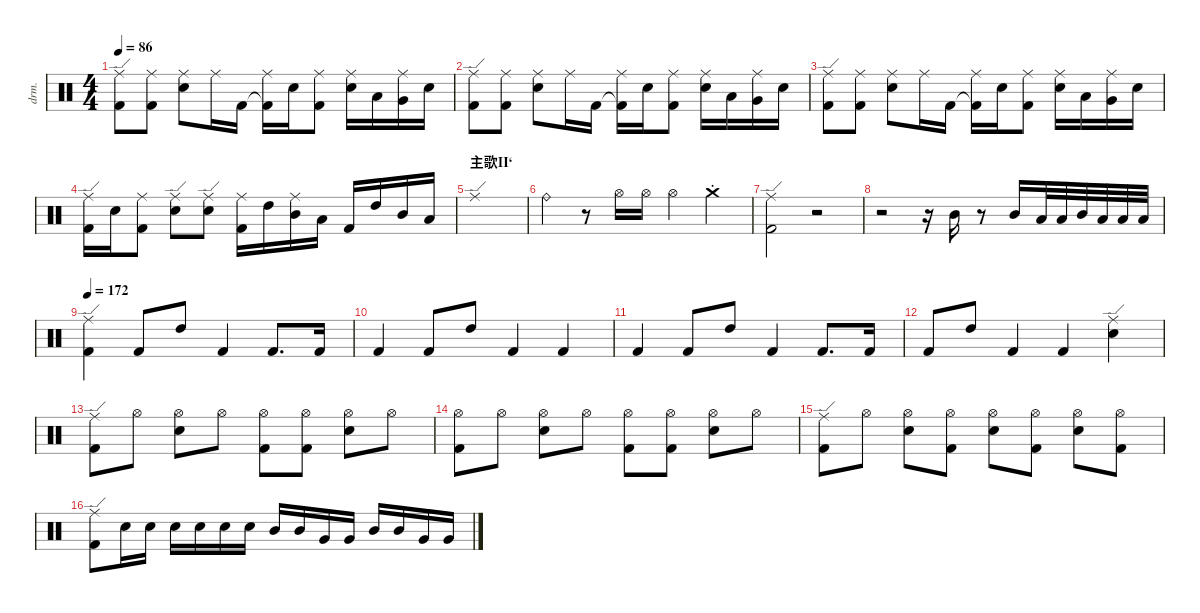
\defaultSystemsLayout 4
\hideDynamics
\bracketExtendMode nobrackets
\track ("Drums" "drm.") {solo instrument percussion}
\staff {score}
\articulation defaults
\ts (4 4)
\tempo 86
\clef neutral
\ks c
("Ride (edge)" "Kick (hit) 2").8{dy ff beam Down} ("Kick (hit) 2" "Ride (middle)").8{dy mf beam Down} ("Snare (hit) 2" "Ride (middle)").8{beam Down} "Ride (middle)".16{beam Down} "Kick (hit) 2".16{beam Down} ("Kick (hit) 2"{t} "Ride (middle)").16{beam Down} "Snare (hit) 2".16{beam Down} ("Kick (hit) 2" "Ride (middle)").8{beam Down} ("Ride (middle)" "Snare (hit) 2").16{beam Down} "Low Tom (hit)".16{beam Down} ("Ride (middle)" "Very Low Tom (hit)").16{beam Down} "Snare (hit) 2".16{beam Down} |
("Ride (edge)" "Kick (hit) 2").8{beam Down} ("Kick (hit) 2" "Ride (middle)").8{beam Down} ("Snare (hit) 2" "Ride (middle)").8{beam Down} "Ride (middle)".16{beam Down} "Kick (hit) 2".16{beam Down} ("Kick (hit) 2"{t} "Ride (middle)").16{beam Down} "Snare (hit) 2".16{beam Down} ("Kick (hit) 2" "Ride (middle)").8{beam Down} ("Ride (middle)" "Snare (hit) 2").16{beam Down} "Low Tom (hit)".16{beam Down} ("Ride (middle)" "Very Low Tom (hit)").16{beam Down} "Snare (hit) 2".16{beam Down} |
("Ride (edge)" "Kick (hit) 2").8{dy ff beam Down} ("Kick (hit) 2" "Ride (middle)").8{dy mf beam Down} ("Snare (hit) 2" "Ride (middle)").8{beam Down} "Ride (middle)".16{beam Down} "Kick (hit) 2".16{beam Down} ("Kick (hit) 2"{t} "Ride (middle)").16{beam Down} "Snare (hit) 2".16{beam Down} ("Kick (hit) 2" "Ride (middle)").8{beam Down} ("Ride (middle)" "Snare (hit) 2").16{beam Down} "Low Tom (hit)".16{beam Down} ("Ride (middle)" "Very Low Tom (hit)").16{beam Down} "Snare (hit) 2".16{beam Down} |
("Ride (edge)" "Kick (hit) 2").16{beam Down} "Snare (hit) 2".16{beam Down} ("Ride (middle)" "Kick (hit) 2").8{beam Down} ("Snare (hit) 2" "Ride (edge)").8{dy ff beam Down} ("Ride (edge)" "Snare (hit) 2").8{beam Down} ("Kick (hit) 2" "Ride (middle)").16{beam Down} "High Tom (hit)".16{beam Down} ("Mid Tom (hit)" "Ride (middle)").16{dy mf beam Down} "Low Tom (hit)".16{beam Down} "Kick (hit) 2".16{dy ff beam Up} "High Tom (hit)".16{beam Up} "Mid Tom (hit)".16{dy mf beam Up} "Low Tom (hit)".16{beam Up} |
\section ("" "主歌II‘")
"Ride (edge)".1{dy ff beam Down} |
"Ride (bell)".4{dy mp beam Down} r.8{beam Down} "Hi-Hat (open)".16{dy p beam Down} "Hi-Hat (open)".16{beam Down} "Hi-Hat (open)".4{dy mf beam Down} "Crash medium (choke)".4{dy mp beam Down} |
("Kick (hit) 2" "Ride (edge)").2{dy f beam Down} r.2{beam Down} |
r.2{beam Down} r.16{beam Down} "Mid Tom (hit)".16{dy mf beam Down} r.8{beam Down} "Mid Tom (hit)".16{beam Up} "Low Tom (hit)".32{beam Up} "Low Tom (hit)".32{beam Up} "Mid Tom (hit)".32{beam Up} "Low Tom (hit)".32{beam Up} "Low Tom (hit)".32{beam Up} "Low Tom (hit)".32{beam Up} |
\tempo 172
("Ride (edge)" "Kick (hit) 2").4{dy ff beam Down} "Kick (hit) 2".8{dy mf beam Up} "High Tom (hit)".8{beam Up} "Kick (hit) 2".4{beam Up} "Kick (hit) 2".8{d beam Up} "Kick (hit) 2".16{beam Up} |
"Kick (hit) 2".4{beam Up} "Kick (hit) 2".8{beam Up} "High Tom (hit)".8{dy fff beam Up} "Kick (hit) 2".4{dy mf beam Up} "Kick (hit) 2".4{beam Up} |
"Kick (hit) 2".4{beam Up} "Kick (hit) 2".8{beam Up} "High Tom (hit)".8{dy fff beam Up} "Kick (hit) 2".4{dy mf beam Up} "Kick (hit) 2".8{d beam Up} "Kick (hit) 2".16{beam Up} |
"Kick (hit) 2".8{beam Up} "High Tom (hit)".8{dy fff beam Up} "Kick (hit) 2".4{dy mf beam Up} "Kick (hit) 2".4{beam Up} ("Snare (hit) 2" "Ride (edge)").4{dy ff beam Down} |
("Kick (hit) 2" "Ride (edge)").8{beam Down} "Hi-Hat (open)".8{dy mf beam Down} ("Snare (hit) 2" "Hi-Hat (open)").8{beam Down} "Hi-Hat (open)".8{beam Down} ("Kick (hit) 2" "Hi-Hat (open)").8{beam Down} ("Kick (hit) 2" "Hi-Hat (open)").8{beam Down} ("Snare (hit) 2" "Hi-Hat (open)").8{beam Down} "Hi-Hat (open)".8{beam Down} |
("Kick (hit) 2" "Hi-Hat (open)").8{beam Down} "Hi-Hat (open)".8{beam Down} ("Snare (hit) 2" "Hi-Hat (open)").8{beam Down} "Hi-Hat (open)".8{beam Down} ("Kick (hit) 2" "Hi-Hat (open)").8{beam Down} ("Kick (hit) 2" "Hi-Hat (open)").8{beam Down} ("Snare (hit) 2" "Hi-Hat (open)").8{beam Down} "Hi-Hat (open)".8{beam Down} |
("Kick (hit) 2" "Ride (edge)").8{dy ff beam Down} "Hi-Hat (open)".8{dy mf beam Down} ("Snare (hit) 2" "Hi-Hat (open)").8{beam Down} ("Hi-Hat (open)" "Kick (hit) 2").8{beam Down} ("Snare (hit) 2" "Hi-Hat (open)").8{beam Down} ("Kick (hit) 2" "Hi-Hat (open)").8{beam Down} ("Snare (hit) 2" "Hi-Hat (open)").8{beam Down} ("Kick (hit) 2" "Hi-Hat (open)").8{beam Down} |
("Kick (hit) 2" "Ride (edge)").8{dy ff beam Down} "Snare (hit) 2".16{dy mf beam Down} "Snare (hit) 2".16{beam Down} "Snare (hit) 2".16{beam Down} "Snare (hit) 2".16{beam Down} "Snare (hit) 2".16{beam Down} "Snare (hit) 2".16{beam Down} "Mid Tom (hit)".16{dy fff beam Up} "Mid Tom (hit)".16{beam Up} "Very Low Tom (hit)".16{beam Up} "Very Low Tom (hit)".16{beam Up} "Mid Tom (hit)".16{beam Up} "Mid Tom (hit)".16{beam Up} "Very Low Tom (hit)".16{beam Up} "Very Low Tom (hit)".16{beam Up}
